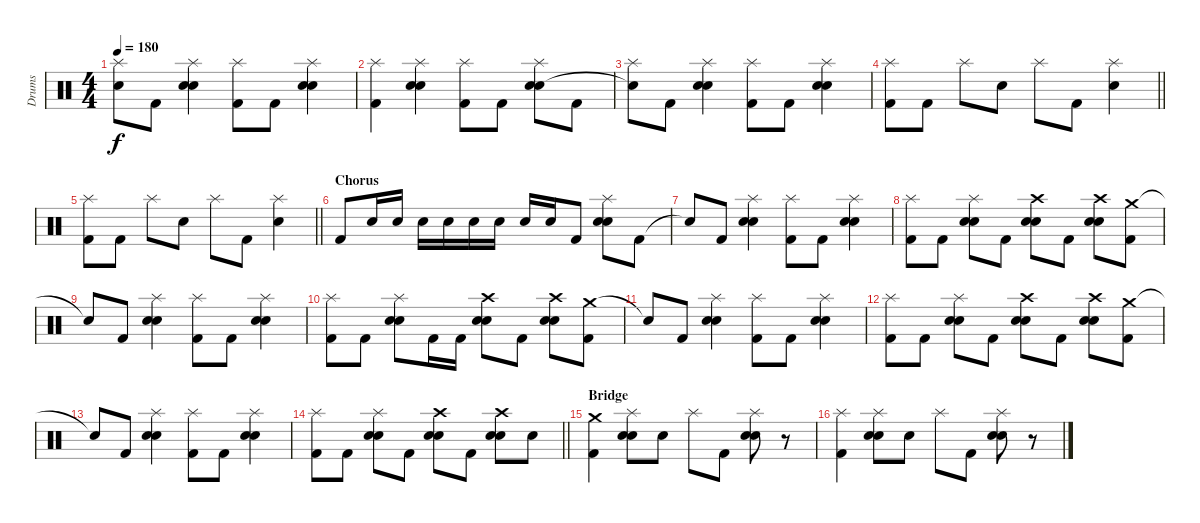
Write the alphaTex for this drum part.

\track ("Drums" "Drums") {instrument percussion}
\staff {score}
\articulation defaults
\ts (4 4)
\tempo 180
\clef neutral
\ks c
("Splash (hit)" "Snare (hit)"{t}).8{dy f} "Kick (hit) 2".8 ("Splash (hit)" "Electric Snare (hit)" "Snare (hit) 2").4 ("Splash (hit)" "Kick (hit) 2").8 "Kick (hit) 2".8 ("Splash (hit)" "Electric Snare (hit)" "Snare (hit) 2").4 |
("Splash (hit)" "Kick (hit) 2").4 ("Splash (hit)" "Electric Snare (hit)" "Snare (hit) 2").4 ("Splash (hit)" "Kick (hit) 2").8 "Kick (hit) 2".8 ("Splash (hit)" "Electric Snare (hit)" "Snare (hit) 2").8 "Kick (hit) 2".8 |
("Splash (hit)" "Snare (hit)"{t}).8 "Kick (hit) 2".8 ("Splash (hit)" "Electric Snare (hit)" "Snare (hit) 2").4 ("Splash (hit)" "Kick (hit) 2").8 "Kick (hit) 2".8 ("Splash (hit)" "Electric Snare (hit)" "Snare (hit) 2").4 |
\barLineRight lightlight
("Splash (hit)" "Kick (hit) 2").8 "Kick (hit) 2".8 "Splash (hit)".8 "Electric Snare (hit)".8 "Splash (hit)".8 "Kick (hit) 2".8 ("Splash (hit)" "Electric Snare (hit)").4 |
\barLineRight lightlight
("Splash (hit)" "Kick (hit) 2").8 "Kick (hit) 2".8 "Splash (hit)".8 "Electric Snare (hit)".8 "Splash (hit)".8 "Kick (hit) 2".8 ("Splash (hit)" "Electric Snare (hit)").4 |
\section ("" "Chorus")
"Kick (hit) 2".8 "Electric Snare (hit)".16 "Electric Snare (hit)".16 "Electric Snare (hit)".16 "Electric Snare (hit)".16 "Electric Snare (hit)".16 "Electric Snare (hit)".16 "Electric Snare (hit)".16 "Electric Snare (hit)".16 "Kick (hit) 2".8 ("Splash (hit)" "Electric Snare (hit)" "Snare (hit) 2").8 "Kick (hit) 2".8 |
"Snare (hit)"{t}.8 "Kick (hit) 2".8 ("Splash (hit)" "Electric Snare (hit)" "Snare (hit) 2").4 ("Splash (hit)" "Kick (hit) 2").8 "Kick (hit) 2".8 ("Splash (hit)" "Electric Snare (hit)" "Snare (hit) 2").4 |
("Splash (hit)" "Kick (hit) 2").8 "Kick (hit) 2".8 ("Splash (hit)" "Electric Snare (hit)" "Snare (hit) 2").8 "Kick (hit) 2".8 ("Crash high (hit)" "Electric Snare (hit)" "Snare (hit) 2").8 "Kick (hit) 2".8 ("Crash high (hit)" "Electric Snare (hit)" "Snare (hit) 2").8 ("Crash medium (hit)" "Kick (hit) 2").8 |
"Snare (hit)"{t}.8 "Kick (hit) 2".8 ("Splash (hit)" "Electric Snare (hit)" "Snare (hit) 2").4 ("Splash (hit)" "Kick (hit) 2").8 "Kick (hit) 2".8 ("Splash (hit)" "Electric Snare (hit)" "Snare (hit) 2").4 |
("Splash (hit)" "Kick (hit) 2").8 "Kick (hit) 2".8 ("Splash (hit)" "Electric Snare (hit)" "Snare (hit) 2").8 "Kick (hit) 2".16 "Kick (hit) 2".16 ("Crash high (hit)" "Electric Snare (hit)" "Snare (hit) 2").8 "Kick (hit) 2".8 ("Crash high (hit)" "Electric Snare (hit)" "Snare (hit) 2").8 ("Crash medium (hit)" "Kick (hit) 2").8 |
"Snare (hit)"{t}.8 "Kick (hit) 2".8 ("Splash (hit)" "Electric Snare (hit)" "Snare (hit) 2").4 ("Splash (hit)" "Kick (hit) 2").8 "Kick (hit) 2".8 ("Splash (hit)" "Electric Snare (hit)" "Snare (hit) 2").4 |
("Splash (hit)" "Kick (hit) 2").8 "Kick (hit) 2".8 ("Splash (hit)" "Electric Snare (hit)" "Snare (hit) 2").8 "Kick (hit) 2".8 ("Crash high (hit)" "Electric Snare (hit)" "Snare (hit) 2").8 "Kick (hit) 2".8 ("Crash high (hit)" "Electric Snare (hit)" "Snare (hit) 2").8 ("Crash medium (hit)" "Kick (hit) 2").8 |
"Snare (hit)"{t}.8 "Kick (hit) 2".8 ("Splash (hit)" "Electric Snare (hit)" "Snare (hit) 2").4 ("Splash (hit)" "Kick (hit) 2").8 "Kick (hit) 2".8 ("Splash (hit)" "Electric Snare (hit)" "Snare (hit) 2").4 |
\barLineRight lightlight
("Splash (hit)" "Kick (hit) 2").8 "Kick (hit) 2".8 ("Splash (hit)" "Electric Snare (hit)" "Snare (hit) 2").8 "Kick (hit) 2".8 ("Crash high (hit)" "Electric Snare (hit)" "Snare (hit) 2").8 "Kick (hit) 2".8 ("Crash high (hit)" "Electric Snare (hit)" "Snare (hit) 2").8 "Electric Snare (hit)".8 |
\section ("" "Bridge")
("Crash medium (hit)" "Kick (hit) 2").4 ("Splash (hit)" "Electric Snare (hit)" "Snare (hit) 2").8 "Electric Snare (hit)".8 "Splash (hit)".8 "Kick (hit) 2".8 ("Splash (hit)" "Electric Snare (hit)" "Snare (hit) 2").8 r.8 |
("Splash (hit)" "Kick (hit) 2").4 ("Splash (hit)" "Electric Snare (hit)" "Snare (hit) 2").8 "Electric Snare (hit)".8 "Splash (hit)".8 "Kick (hit) 2".8 ("Splash (hit)" "Electric Snare (hit)" "Snare (hit) 2").8 r.8
